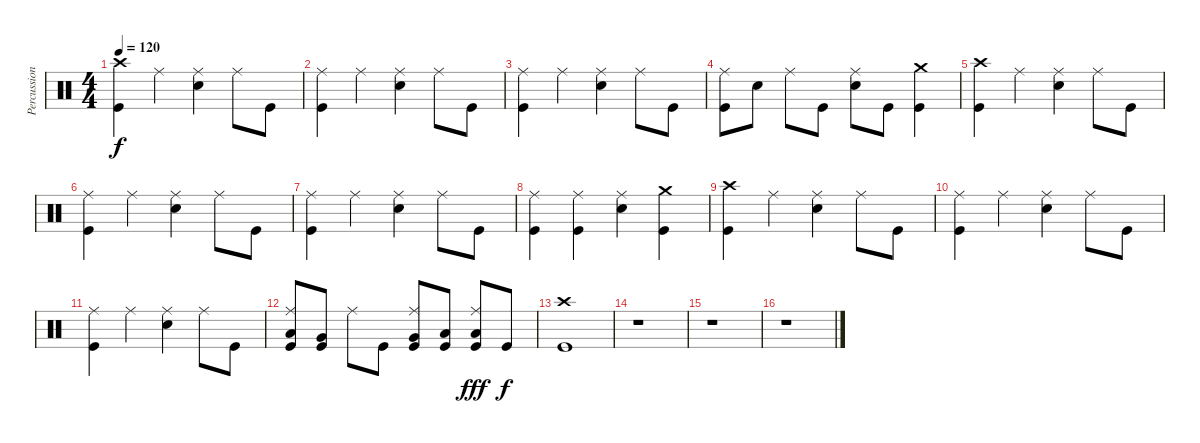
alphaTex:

\track ("Percussion" "Percussion") {instrument percussion}
\staff {score}
\articulation defaults
\ts (4 4)
\tempo 120
\clef neutral
\ks c
("Crash high (hit)" "Kick (hit)").4{dy f} "Ride (middle)".4 ("Ride (middle)" "Snare (hit) 2").4 "Ride (middle)".8 "Kick (hit)".8 |
("Ride (middle)" "Kick (hit)").4 "Ride (middle)".4 ("Ride (middle)" "Snare (hit) 2").4 "Ride (middle)".8 "Kick (hit)".8 |
("Ride (middle)" "Kick (hit)").4 "Ride (middle)".4 ("Ride (middle)" "Snare (hit) 2").4 "Ride (middle)".8 "Kick (hit)".8 |
("Ride (middle)" "Kick (hit)").8 "Snare (hit) 2".8 "Ride (middle)".8 "Kick (hit)".8 ("Ride (middle)" "Snare (hit) 2").8 "Kick (hit)".8 ("Crash medium (hit)" "Kick (hit)").4 |
("Crash high (hit)" "Kick (hit)").4 "Ride (middle)".4 ("Ride (middle)" "Snare (hit) 2").4 "Ride (middle)".8 "Kick (hit)".8 |
("Ride (middle)" "Kick (hit)").4 "Ride (middle)".4 ("Ride (middle)" "Snare (hit) 2").4 "Ride (middle)".8 "Kick (hit)".8 |
("Ride (middle)" "Kick (hit)").4 "Ride (middle)".4 ("Ride (middle)" "Snare (hit) 2").4 "Ride (middle)".8 "Kick (hit)".8 |
("Ride (middle)" "Kick (hit)").4 ("Ride (middle)" "Kick (hit)").4 ("Ride (middle)" "Snare (hit) 2").4 ("Crash medium (hit)" "Kick (hit)").4 |
("Crash high (hit)" "Kick (hit)").4 "Ride (middle)".4 ("Ride (middle)" "Snare (hit) 2").4 "Ride (middle)".8 "Kick (hit)".8 |
("Ride (middle)" "Kick (hit)").4 "Ride (middle)".4 ("Ride (middle)" "Snare (hit) 2").4 "Ride (middle)".8 "Kick (hit)".8 |
("Ride (middle)" "Kick (hit)").4 "Ride (middle)".4 ("Ride (middle)" "Snare (hit) 2").4 "Ride (middle)".8 "Kick (hit)".8 |
("Ride (middle)" "Kick (hit)" "Low Tom (hit)").8 ("Kick (hit)" "Very Low Tom (hit)").8 "Ride (middle)".8 "Kick (hit)".8 ("Ride (middle)" "Kick (hit)" "Very Low Tom (hit)").8 ("Kick (hit)" "Low Floor Tom (hit)").8 ("Ride (middle)" "Kick (hit)" "Low Tom (hit)").8{dy fff} "Kick (hit)".8{dy f} |
("Crash high (hit)" "Kick (hit)").1 |
r.1 |
r.1 |
r.1
